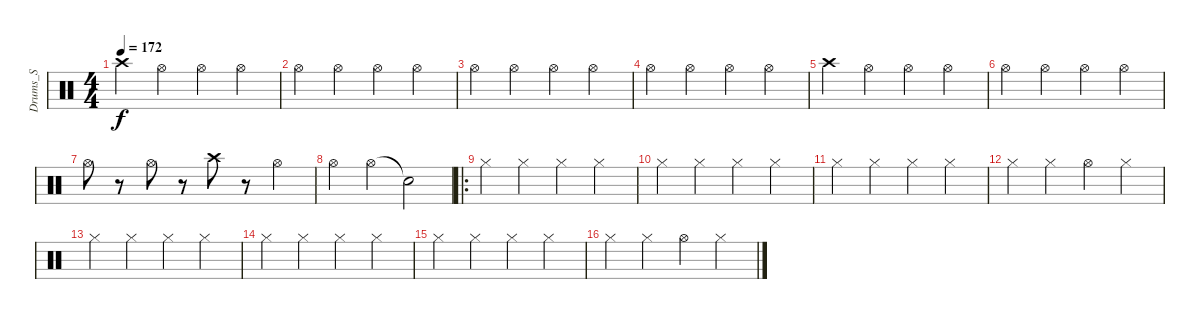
\track ("Drums_S" "Drums_S") {instrument percussion}
\staff {score}
\articulation defaults
\ts (4 4)
\tempo 172
\clef neutral
\ks c "Crash high (hit)".4{dy f} "Hi-Hat (open)".4 "Hi-Hat (open)".4 "Hi-Hat (open)".4
|
"Hi-Hat (open)".4 "Hi-Hat (open)".4 "Hi-Hat (open)".4 "Hi-Hat (open)".4 |
"Hi-Hat (open)".4 "Hi-Hat (open)".4 "Hi-Hat (open)".4 "Hi-Hat (open)".4 |
"Hi-Hat (open)".4 "Hi-Hat (open)".4 "Hi-Hat (open)".4 "Hi-Hat (open)".4 |
"Crash high (hit)".4 "Hi-Hat (open)".4 "Hi-Hat (open)".4 "Hi-Hat (open)".4 |
"Hi-Hat (open)".4 "Hi-Hat (open)".4 "Hi-Hat (open)".4 "Hi-Hat (open)".4 |
"Hi-Hat (open)".8 r.8 "Hi-Hat (open)".8 r.8 "Crash high (hit)".8 r.8 "Hi-Hat (open)".4 |
"Hi-Hat (open)".4 "Hi-Hat (open)".4 "Snare (hit)"{t}.2 |
\ro "Hi-Hat (closed)".4 "Hi-Hat (closed)".4 "Hi-Hat (closed)".4 "Hi-Hat (closed)".4
|
"Hi-Hat (closed)".4 "Hi-Hat (closed)".4 "Hi-Hat (closed)".4 "Hi-Hat (closed)".4 |
"Hi-Hat (closed)".4 "Hi-Hat (closed)".4 "Hi-Hat (closed)".4 "Hi-Hat (closed)".4 |
"Hi-Hat (closed)".4 "Hi-Hat (closed)".4 "Hi-Hat (open)".4 "Hi-Hat (closed)".4 |
"Hi-Hat (closed)".4 "Hi-Hat (closed)".4 "Hi-Hat (closed)".4 "Hi-Hat (closed)".4 |
"Hi-Hat (closed)".4 "Hi-Hat (closed)".4 "Hi-Hat (closed)".4 "Hi-Hat (closed)".4 |
"Hi-Hat (closed)".4 "Hi-Hat (closed)".4 "Hi-Hat (closed)".4 "Hi-Hat (closed)".4 |
"Hi-Hat (closed)".4 "Hi-Hat (closed)".4 "Hi-Hat (open)".4 "Hi-Hat (closed)".4
